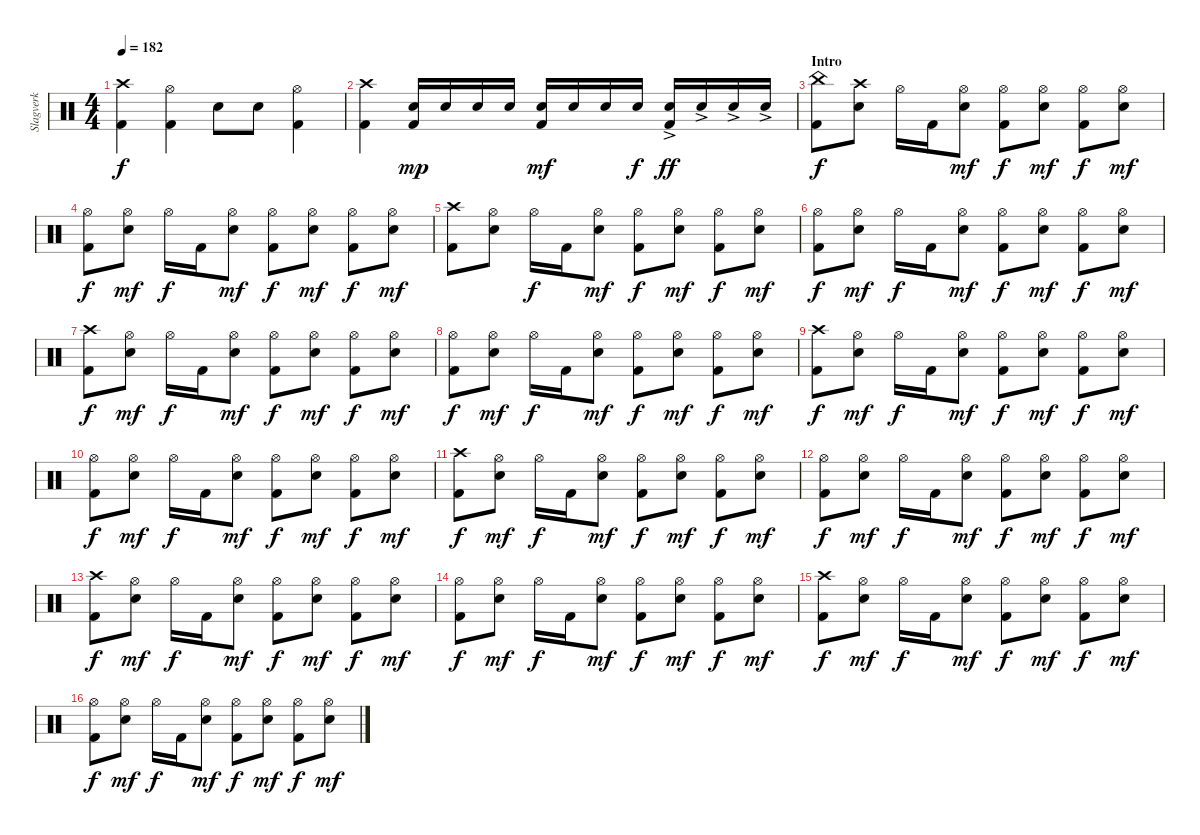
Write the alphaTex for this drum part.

\track ("Slagverk" "Slagverk") {instrument percussion}
\staff {score}
\articulation defaults
\ts (4 4)
\tempo 182
\clef neutral
\ks c
("Crash high (hit)" "Kick (hit) 2").4{dy f} ("Hi-Hat (open)" "Kick (hit) 2").4 "Electric Snare (hit)".8 "Electric Snare (hit)".8 ("Hi-Hat (open)" "Kick (hit) 2").4 |
("Crash high (hit)" "Kick (hit) 2").4 ("Electric Snare (hit)" "Kick (hit) 2").16{dy mp} "Electric Snare (hit)".16 "Electric Snare (hit)".16 "Electric Snare (hit)".16 ("Electric Snare (hit)" "Kick (hit) 2").16{dy mf} "Electric Snare (hit)".16 "Electric Snare (hit)".16 "Electric Snare (hit)".16{dy f} ("Electric Snare (hit)"{ac} "Kick (hit) 2").16{dy ff} "Electric Snare (hit)"{ac}.16 "Electric Snare (hit)"{ac}.16 "Electric Snare (hit)"{ac}.16 |
\section ("" "Intro")
("China (hit)" "Kick (hit) 2").8{dy f} ("Crash high (hit)" "Electric Snare (hit)").8 "Hi-Hat (open)".16 "Kick (hit) 2".16 ("Hi-Hat (open)" "Electric Snare (hit)").8{dy mf} ("Hi-Hat (open)" "Kick (hit) 2").8{dy f} ("Hi-Hat (open)" "Electric Snare (hit)").8{dy mf} ("Hi-Hat (open)" "Kick (hit) 2").8{dy f} ("Hi-Hat (open)" "Electric Snare (hit)").8{dy mf} |
("Hi-Hat (open)" "Kick (hit) 2").8{dy f} ("Hi-Hat (open)" "Electric Snare (hit)").8{dy mf} "Hi-Hat (open)".16{dy f} "Kick (hit) 2".16 ("Hi-Hat (open)" "Electric Snare (hit)").8{dy mf} ("Hi-Hat (open)" "Kick (hit) 2").8{dy f} ("Hi-Hat (open)" "Electric Snare (hit)").8{dy mf} ("Hi-Hat (open)" "Kick (hit) 2").8{dy f} ("Hi-Hat (open)" "Electric Snare (hit)").8{dy mf} |
("Crash high (hit)" "Kick (hit) 2").8 ("Hi-Hat (open)" "Electric Snare (hit)").8 "Hi-Hat (open)".16{dy f} "Kick (hit) 2".16 ("Hi-Hat (open)" "Electric Snare (hit)").8{dy mf} ("Hi-Hat (open)" "Kick (hit) 2").8{dy f} ("Hi-Hat (open)" "Electric Snare (hit)").8{dy mf} ("Hi-Hat (open)" "Kick (hit) 2").8{dy f} ("Hi-Hat (open)" "Electric Snare (hit)").8{dy mf} |
("Hi-Hat (open)" "Kick (hit) 2").8{dy f} ("Hi-Hat (open)" "Electric Snare (hit)").8{dy mf} "Hi-Hat (open)".16{dy f} "Kick (hit) 2".16 ("Hi-Hat (open)" "Electric Snare (hit)").8{dy mf} ("Hi-Hat (open)" "Kick (hit) 2").8{dy f} ("Hi-Hat (open)" "Electric Snare (hit)").8{dy mf} ("Hi-Hat (open)" "Kick (hit) 2").8{dy f} ("Hi-Hat (open)" "Electric Snare (hit)").8{dy mf} |
("Crash high (hit)" "Kick (hit) 2").8{dy f} ("Hi-Hat (open)" "Electric Snare (hit)").8{dy mf} "Hi-Hat (open)".16{dy f} "Kick (hit) 2".16 ("Hi-Hat (open)" "Electric Snare (hit)").8{dy mf} ("Hi-Hat (open)" "Kick (hit) 2").8{dy f} ("Hi-Hat (open)" "Electric Snare (hit)").8{dy mf} ("Hi-Hat (open)" "Kick (hit) 2").8{dy f} ("Hi-Hat (open)" "Electric Snare (hit)").8{dy mf} |
("Hi-Hat (open)" "Kick (hit) 2").8{dy f} ("Hi-Hat (open)" "Electric Snare (hit)").8{dy mf} "Hi-Hat (open)".16{dy f} "Kick (hit) 2".16 ("Hi-Hat (open)" "Electric Snare (hit)").8{dy mf} ("Hi-Hat (open)" "Kick (hit) 2").8{dy f} ("Hi-Hat (open)" "Electric Snare (hit)").8{dy mf} ("Hi-Hat (open)" "Kick (hit) 2").8{dy f} ("Hi-Hat (open)" "Electric Snare (hit)").8{dy mf} |
("Crash high (hit)" "Kick (hit) 2").8{dy f} ("Hi-Hat (open)" "Electric Snare (hit)").8{dy mf} "Hi-Hat (open)".16{dy f} "Kick (hit) 2".16 ("Hi-Hat (open)" "Electric Snare (hit)").8{dy mf} ("Hi-Hat (open)" "Kick (hit) 2").8{dy f} ("Hi-Hat (open)" "Electric Snare (hit)").8{dy mf} ("Hi-Hat (open)" "Kick (hit) 2").8{dy f} ("Hi-Hat (open)" "Electric Snare (hit)").8{dy mf} |
("Hi-Hat (open)" "Kick (hit) 2").8{dy f} ("Hi-Hat (open)" "Electric Snare (hit)").8{dy mf} "Hi-Hat (open)".16{dy f} "Kick (hit) 2".16 ("Hi-Hat (open)" "Electric Snare (hit)").8{dy mf} ("Hi-Hat (open)" "Kick (hit) 2").8{dy f} ("Hi-Hat (open)" "Electric Snare (hit)").8{dy mf} ("Hi-Hat (open)" "Kick (hit) 2").8{dy f} ("Hi-Hat (open)" "Electric Snare (hit)").8{dy mf} |
("Crash high (hit)" "Kick (hit) 2").8{dy f} ("Hi-Hat (open)" "Electric Snare (hit)").8{dy mf} "Hi-Hat (open)".16{dy f} "Kick (hit) 2".16 ("Hi-Hat (open)" "Electric Snare (hit)").8{dy mf} ("Hi-Hat (open)" "Kick (hit) 2").8{dy f} ("Hi-Hat (open)" "Electric Snare (hit)").8{dy mf} ("Hi-Hat (open)" "Kick (hit) 2").8{dy f} ("Hi-Hat (open)" "Electric Snare (hit)").8{dy mf} |
("Hi-Hat (open)" "Kick (hit) 2").8{dy f} ("Hi-Hat (open)" "Electric Snare (hit)").8{dy mf} "Hi-Hat (open)".16{dy f} "Kick (hit) 2".16 ("Hi-Hat (open)" "Electric Snare (hit)").8{dy mf} ("Hi-Hat (open)" "Kick (hit) 2").8{dy f} ("Hi-Hat (open)" "Electric Snare (hit)").8{dy mf} ("Hi-Hat (open)" "Kick (hit) 2").8{dy f} ("Hi-Hat (open)" "Electric Snare (hit)").8{dy mf} |
("Crash high (hit)" "Kick (hit) 2").8{dy f} ("Hi-Hat (open)" "Electric Snare (hit)").8{dy mf} "Hi-Hat (open)".16{dy f} "Kick (hit) 2".16 ("Hi-Hat (open)" "Electric Snare (hit)").8{dy mf} ("Hi-Hat (open)" "Kick (hit) 2").8{dy f} ("Hi-Hat (open)" "Electric Snare (hit)").8{dy mf} ("Hi-Hat (open)" "Kick (hit) 2").8{dy f} ("Hi-Hat (open)" "Electric Snare (hit)").8{dy mf} |
("Hi-Hat (open)" "Kick (hit) 2").8{dy f} ("Hi-Hat (open)" "Electric Snare (hit)").8{dy mf} "Hi-Hat (open)".16{dy f} "Kick (hit) 2".16 ("Hi-Hat (open)" "Electric Snare (hit)").8{dy mf} ("Hi-Hat (open)" "Kick (hit) 2").8{dy f} ("Hi-Hat (open)" "Electric Snare (hit)").8{dy mf} ("Hi-Hat (open)" "Kick (hit) 2").8{dy f} ("Hi-Hat (open)" "Electric Snare (hit)").8{dy mf} |
("Crash high (hit)" "Kick (hit) 2").8{dy f} ("Hi-Hat (open)" "Electric Snare (hit)").8{dy mf} "Hi-Hat (open)".16{dy f} "Kick (hit) 2".16 ("Hi-Hat (open)" "Electric Snare (hit)").8{dy mf} ("Hi-Hat (open)" "Kick (hit) 2").8{dy f} ("Hi-Hat (open)" "Electric Snare (hit)").8{dy mf} ("Hi-Hat (open)" "Kick (hit) 2").8{dy f} ("Hi-Hat (open)" "Electric Snare (hit)").8{dy mf} |
("Hi-Hat (open)" "Kick (hit) 2").8{dy f} ("Hi-Hat (open)" "Electric Snare (hit)").8{dy mf} "Hi-Hat (open)".16{dy f} "Kick (hit) 2".16 ("Hi-Hat (open)" "Electric Snare (hit)").8{dy mf} ("Hi-Hat (open)" "Kick (hit) 2").8{dy f} ("Hi-Hat (open)" "Electric Snare (hit)").8{dy mf} ("Hi-Hat (open)" "Kick (hit) 2").8{dy f} ("Hi-Hat (open)" "Electric Snare (hit)").8{dy mf}
